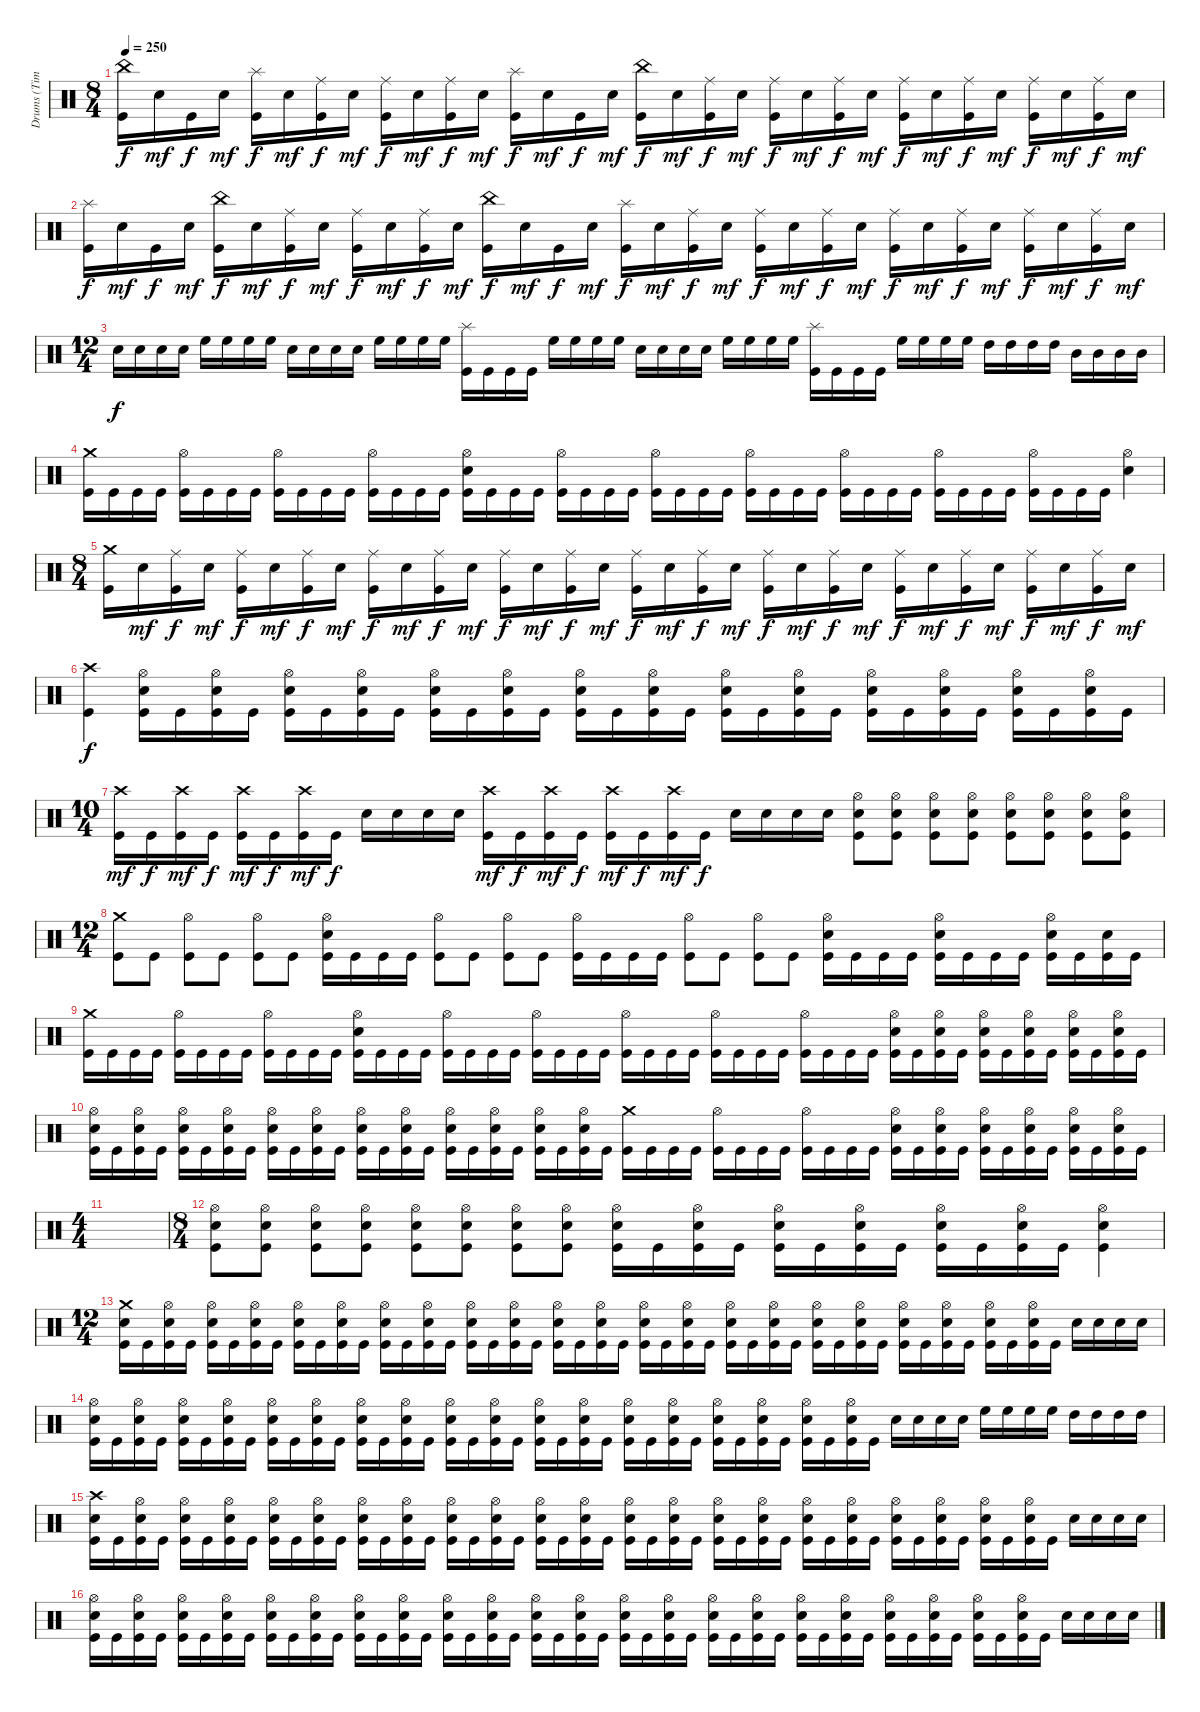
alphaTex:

\track ("Drums (Tim Yeung)" "Drums (Tim") {instrument percussion}
\staff {score}
\articulation defaults
\ts (8 4)
\tempo 250
\clef neutral
\ks c
("China (hit)" "Kick (hit)").16{dy f} "Electric Snare (hit)".16{dy mf} "Kick (hit)".16{dy f} "Electric Snare (hit)".16{dy mf} ("Splash (hit)" "Kick (hit)").16{dy f} "Electric Snare (hit)".16{dy mf} ("Ride (middle)" "Kick (hit)").16{dy f} "Electric Snare (hit)".16{dy mf} ("Ride (middle)" "Kick (hit)").16{dy f} "Electric Snare (hit)".16{dy mf} ("Ride (middle)" "Kick (hit)").16{dy f} "Electric Snare (hit)".16{dy mf} ("Splash (hit)" "Kick (hit)").16{dy f} "Electric Snare (hit)".16{dy mf} "Kick (hit)".16{dy f} "Electric Snare (hit)".16{dy mf} ("China (hit)" "Kick (hit)").16{dy f} "Electric Snare (hit)".16{dy mf} ("Ride (middle)" "Kick (hit)").16{dy f} "Electric Snare (hit)".16{dy mf} ("Ride (middle)" "Kick (hit)").16{dy f} "Electric Snare (hit)".16{dy mf} ("Ride (middle)" "Kick (hit)").16{dy f} "Electric Snare (hit)".16{dy mf} ("Ride (middle)" "Kick (hit)").16{dy f} "Electric Snare (hit)".16{dy mf} ("Ride (middle)" "Kick (hit)").16{dy f} "Electric Snare (hit)".16{dy mf} ("Ride (middle)" "Kick (hit)").16{dy f} "Electric Snare (hit)".16{dy mf} ("Ride (middle)" "Kick (hit)").16{dy f} "Electric Snare (hit)".16{dy mf} |
("Splash (hit)" "Kick (hit)").16{dy f} "Electric Snare (hit)".16{dy mf} "Kick (hit)".16{dy f} "Electric Snare (hit)".16{dy mf} ("China (hit)" "Kick (hit)").16{dy f} "Electric Snare (hit)".16{dy mf} ("Ride (middle)" "Kick (hit)").16{dy f} "Electric Snare (hit)".16{dy mf} ("Ride (middle)" "Kick (hit)").16{dy f} "Electric Snare (hit)".16{dy mf} ("Ride (middle)" "Kick (hit)").16{dy f} "Electric Snare (hit)".16{dy mf} ("China (hit)" "Kick (hit)").16{dy f} "Electric Snare (hit)".16{dy mf} "Kick (hit)".16{dy f} "Electric Snare (hit)".16{dy mf} ("Splash (hit)" "Kick (hit)").16{dy f} "Electric Snare (hit)".16{dy mf} ("Ride (middle)" "Kick (hit)").16{dy f} "Electric Snare (hit)".16{dy mf} ("Ride (middle)" "Kick (hit)").16{dy f} "Electric Snare (hit)".16{dy mf} ("Ride (middle)" "Kick (hit)").16{dy f} "Electric Snare (hit)".16{dy mf} ("Ride (middle)" "Kick (hit)").16{dy f} "Electric Snare (hit)".16{dy mf} ("Ride (middle)" "Kick (hit)").16{dy f} "Electric Snare (hit)".16{dy mf} ("Ride (middle)" "Kick (hit)").16{dy f} "Electric Snare (hit)".16{dy mf} ("Ride (middle)" "Kick (hit)").16{dy f} "Electric Snare (hit)".16{dy mf} |
\ts (12 4)
"Electric Snare (hit)".16{dy f} "Electric Snare (hit)".16 "Electric Snare (hit)".16 "Electric Snare (hit)".16 "High Floor Tom (hit)".16 "High Floor Tom (hit)".16 "High Floor Tom (hit)".16 "High Floor Tom (hit)".16 "Electric Snare (hit)".16 "Electric Snare (hit)".16 "Electric Snare (hit)".16 "Electric Snare (hit)".16 "High Floor Tom (hit)".16 "High Floor Tom (hit)".16 "High Floor Tom (hit)".16 "High Floor Tom (hit)".16 ("Splash (hit)" "Kick (hit)").16 "Kick (hit)".16 "Kick (hit)".16 "Kick (hit)".16 "High Floor Tom (hit)".16 "High Floor Tom (hit)".16 "High Floor Tom (hit)".16 "High Floor Tom (hit)".16 "Electric Snare (hit)".16 "Electric Snare (hit)".16 "Electric Snare (hit)".16 "Electric Snare (hit)".16 "High Floor Tom (hit)".16 "High Floor Tom (hit)".16 "High Floor Tom (hit)".16 "High Floor Tom (hit)".16 ("Splash (hit)" "Kick (hit)").16 "Kick (hit)".16 "Kick (hit)".16 "Kick (hit)".16 "High Floor Tom (hit)".16 "High Floor Tom (hit)".16 "High Floor Tom (hit)".16 "High Floor Tom (hit)".16 "High Tom (hit)".16 "High Tom (hit)".16 "High Tom (hit)".16 "High Tom (hit)".16 "Mid Tom (hit)".16 "Mid Tom (hit)".16 "Mid Tom (hit)".16 "Mid Tom (hit)".16 |
("Crash medium (hit)" "Kick (hit)").16 "Kick (hit)".16 "Kick (hit)".16 "Kick (hit)".16 ("Hi-Hat (open)" "Kick (hit)").16 "Kick (hit)".16 "Kick (hit)".16 "Kick (hit)".16 ("Hi-Hat (open)" "Kick (hit)").16 "Kick (hit)".16 "Kick (hit)".16 "Kick (hit)".16 ("Hi-Hat (open)" "Kick (hit)").16 "Kick (hit)".16 "Kick (hit)".16 "Kick (hit)".16 ("Hi-Hat (open)" "Electric Snare (hit)" "Kick (hit)").16 "Kick (hit)".16 "Kick (hit)".16 "Kick (hit)".16 ("Hi-Hat (open)" "Kick (hit)").16 "Kick (hit)".16 "Kick (hit)".16 "Kick (hit)".16 ("Hi-Hat (open)" "Kick (hit)").16 "Kick (hit)".16 "Kick (hit)".16 "Kick (hit)".16 ("Hi-Hat (open)" "Kick (hit)").16 "Kick (hit)".16 "Kick (hit)".16 "Kick (hit)".16 ("Hi-Hat (open)" "Kick (hit)").16 "Kick (hit)".16 "Kick (hit)".16 "Kick (hit)".16 ("Hi-Hat (open)" "Kick (hit)").16 "Kick (hit)".16 "Kick (hit)".16 "Kick (hit)".16 ("Hi-Hat (open)" "Kick (hit)").16 "Kick (hit)".16 "Kick (hit)".16 "Kick (hit)".16 ("Hi-Hat (open)" "Electric Snare (hit)").4 |
\ts (8 4)
("Crash medium (hit)" "Kick (hit)").16 "Electric Snare (hit)".16{dy mf} ("Ride (middle)" "Kick (hit)").16{dy f} "Electric Snare (hit)".16{dy mf} ("Ride (middle)" "Kick (hit)").16{dy f} "Electric Snare (hit)".16{dy mf} ("Ride (middle)" "Kick (hit)").16{dy f} "Electric Snare (hit)".16{dy mf} ("Ride (middle)" "Kick (hit)").16{dy f} "Electric Snare (hit)".16{dy mf} ("Ride (middle)" "Kick (hit)").16{dy f} "Electric Snare (hit)".16{dy mf} ("Ride (middle)" "Kick (hit)").16{dy f} "Electric Snare (hit)".16{dy mf} ("Ride (middle)" "Kick (hit)").16{dy f} "Electric Snare (hit)".16{dy mf} ("Ride (middle)" "Kick (hit)").16{dy f} "Electric Snare (hit)".16{dy mf} ("Ride (middle)" "Kick (hit)").16{dy f} "Electric Snare (hit)".16{dy mf} ("Ride (middle)" "Kick (hit)").16{dy f} "Electric Snare (hit)".16{dy mf} ("Ride (middle)" "Kick (hit)").16{dy f} "Electric Snare (hit)".16{dy mf} ("Ride (middle)" "Kick (hit)").16{dy f} "Electric Snare (hit)".16{dy mf} ("Ride (middle)" "Kick (hit)").16{dy f} "Electric Snare (hit)".16{dy mf} ("Ride (middle)" "Kick (hit)").16{dy f} "Electric Snare (hit)".16{dy mf} ("Ride (middle)" "Kick (hit)").16{dy f} "Electric Snare (hit)".16{dy mf} |
("Crash high (hit)" "Kick (hit)").4{dy f} ("Hi-Hat (open)" "Electric Snare (hit)" "Kick (hit)").16 "Kick (hit)".16 ("Hi-Hat (open)" "Electric Snare (hit)" "Kick (hit)").16 "Kick (hit)".16 ("Hi-Hat (open)" "Electric Snare (hit)" "Kick (hit)").16 "Kick (hit)".16 ("Hi-Hat (open)" "Electric Snare (hit)" "Kick (hit)").16 "Kick (hit)".16 ("Hi-Hat (open)" "Electric Snare (hit)" "Kick (hit)").16 "Kick (hit)".16 ("Hi-Hat (open)" "Electric Snare (hit)" "Kick (hit)").16 "Kick (hit)".16 ("Hi-Hat (open)" "Electric Snare (hit)" "Kick (hit)").16 "Kick (hit)".16 ("Hi-Hat (open)" "Electric Snare (hit)" "Kick (hit)").16 "Kick (hit)".16 ("Hi-Hat (open)" "Electric Snare (hit)" "Kick (hit)").16 "Kick (hit)".16 ("Hi-Hat (open)" "Electric Snare (hit)" "Kick (hit)").16 "Kick (hit)".16 ("Hi-Hat (open)" "Electric Snare (hit)" "Kick (hit)").16 "Kick (hit)".16 ("Hi-Hat (open)" "Electric Snare (hit)" "Kick (hit)").16 "Kick (hit)".16 ("Hi-Hat (open)" "Electric Snare (hit)" "Kick (hit)").16 "Kick (hit)".16 ("Hi-Hat (open)" "Electric Snare (hit)" "Kick (hit)").16 "Kick (hit)".16 |
\ts (10 4)
("Crash high (hit)" "Kick (hit)").16{dy mf} "Kick (hit)".16{dy f} ("Crash high (hit)" "Kick (hit)").16{dy mf} "Kick (hit)".16{dy f} ("Crash high (hit)" "Kick (hit)").16{dy mf} "Kick (hit)".16{dy f} ("Crash high (hit)" "Kick (hit)").16{dy mf} "Kick (hit)".16{dy f} "Electric Snare (hit)".16 "Electric Snare (hit)".16 "Electric Snare (hit)".16 "Electric Snare (hit)".16 ("Crash high (hit)" "Kick (hit)").16{dy mf} "Kick (hit)".16{dy f} ("Crash high (hit)" "Kick (hit)").16{dy mf} "Kick (hit)".16{dy f} ("Crash high (hit)" "Kick (hit)").16{dy mf} "Kick (hit)".16{dy f} ("Crash high (hit)" "Kick (hit)").16{dy mf} "Kick (hit)".16{dy f} "Electric Snare (hit)".16 "Electric Snare (hit)".16 "Electric Snare (hit)".16 "Electric Snare (hit)".16 ("Hi-Hat (open)" "Electric Snare (hit)" "Kick (hit)").8 ("Hi-Hat (open)" "Electric Snare (hit)" "Kick (hit)").8 ("Hi-Hat (open)" "Electric Snare (hit)" "Kick (hit)").8 ("Hi-Hat (open)" "Electric Snare (hit)" "Kick (hit)").8 ("Hi-Hat (open)" "Electric Snare (hit)" "Kick (hit)").8 ("Hi-Hat (open)" "Electric Snare (hit)" "Kick (hit)").8 ("Hi-Hat (open)" "Electric Snare (hit)" "Kick (hit)").8 ("Hi-Hat (open)" "Electric Snare (hit)" "Kick (hit)").8 |
\ts (12 4)
("Crash medium (hit)" "Kick (hit)").8 "Kick (hit)".8 ("Hi-Hat (open)" "Kick (hit)").8 "Kick (hit)".8 ("Hi-Hat (open)" "Kick (hit)").8 "Kick (hit)".8 ("Hi-Hat (open)" "Electric Snare (hit)" "Kick (hit)").16 "Kick (hit)".16 "Kick (hit)".16 "Kick (hit)".16 ("Hi-Hat (open)" "Kick (hit)").8 "Kick (hit)".8 ("Hi-Hat (open)" "Kick (hit)").8 "Kick (hit)".8 ("Hi-Hat (open)" "Kick (hit)").16 "Kick (hit)".16 "Kick (hit)".16 "Kick (hit)".16 ("Hi-Hat (open)" "Kick (hit)").8 "Kick (hit)".8 ("Hi-Hat (open)" "Kick (hit)").8 "Kick (hit)".8 ("Hi-Hat (open)" "Electric Snare (hit)" "Kick (hit)").16 "Kick (hit)".16 "Kick (hit)".16 "Kick (hit)".16 ("Hi-Hat (open)" "Electric Snare (hit)" "Kick (hit)").16 "Kick (hit)".16 "Kick (hit)".16 "Kick (hit)".16 ("Hi-Hat (open)" "Electric Snare (hit)" "Kick (hit)").16 "Kick (hit)".16 ("Electric Snare (hit)" "Kick (hit)").16 "Kick (hit)".16 |
("Crash medium (hit)" "Kick (hit)").16 "Kick (hit)".16 "Kick (hit)".16 "Kick (hit)".16 ("Hi-Hat (open)" "Kick (hit)").16 "Kick (hit)".16 "Kick (hit)".16 "Kick (hit)".16 ("Hi-Hat (open)" "Kick (hit)").16 "Kick (hit)".16 "Kick (hit)".16 "Kick (hit)".16 ("Hi-Hat (open)" "Electric Snare (hit)" "Kick (hit)").16 "Kick (hit)".16 "Kick (hit)".16 "Kick (hit)".16 ("Hi-Hat (open)" "Kick (hit)").16 "Kick (hit)".16 "Kick (hit)".16 "Kick (hit)".16 ("Hi-Hat (open)" "Kick (hit)").16 "Kick (hit)".16 "Kick (hit)".16 "Kick (hit)".16 ("Hi-Hat (open)" "Kick (hit)").16 "Kick (hit)".16 "Kick (hit)".16 "Kick (hit)".16 ("Hi-Hat (open)" "Kick (hit)").16 "Kick (hit)".16 "Kick (hit)".16 "Kick (hit)".16 ("Hi-Hat (open)" "Kick (hit)").16 "Kick (hit)".16 "Kick (hit)".16 "Kick (hit)".16 ("Hi-Hat (open)" "Electric Snare (hit)" "Kick (hit)").16 "Kick (hit)".16 ("Hi-Hat (open)" "Electric Snare (hit)" "Kick (hit)").16 "Kick (hit)".16 ("Hi-Hat (open)" "Electric Snare (hit)" "Kick (hit)").16 "Kick (hit)".16 ("Hi-Hat (open)" "Electric Snare (hit)" "Kick (hit)").16 "Kick (hit)".16 ("Hi-Hat (open)" "Electric Snare (hit)" "Kick (hit)").16 "Kick (hit)".16 ("Hi-Hat (open)" "Electric Snare (hit)" "Kick (hit)").16 "Kick (hit)".16 |
("Hi-Hat (open)" "Electric Snare (hit)" "Kick (hit)").16 "Kick (hit)".16 ("Hi-Hat (open)" "Electric Snare (hit)" "Kick (hit)").16 "Kick (hit)".16 ("Hi-Hat (open)" "Electric Snare (hit)" "Kick (hit)").16 "Kick (hit)".16 ("Hi-Hat (open)" "Electric Snare (hit)" "Kick (hit)").16 "Kick (hit)".16 ("Hi-Hat (open)" "Electric Snare (hit)" "Kick (hit)").16 "Kick (hit)".16 ("Hi-Hat (open)" "Electric Snare (hit)" "Kick (hit)").16 "Kick (hit)".16 ("Hi-Hat (open)" "Electric Snare (hit)" "Kick (hit)").16 "Kick (hit)".16 ("Hi-Hat (open)" "Electric Snare (hit)" "Kick (hit)").16 "Kick (hit)".16 ("Hi-Hat (open)" "Electric Snare (hit)" "Kick (hit)").16 "Kick (hit)".16 ("Hi-Hat (open)" "Electric Snare (hit)" "Kick (hit)").16 "Kick (hit)".16 ("Hi-Hat (open)" "Electric Snare (hit)" "Kick (hit)").16 "Kick (hit)".16 ("Hi-Hat (open)" "Electric Snare (hit)" "Kick (hit)").16 "Kick (hit)".16 ("Crash medium (hit)" "Kick (hit)").16 "Kick (hit)".16 "Kick (hit)".16 "Kick (hit)".16 ("Hi-Hat (open)" "Kick (hit)").16 "Kick (hit)".16 "Kick (hit)".16 "Kick (hit)".16 ("Hi-Hat (open)" "Kick (hit)").16 "Kick (hit)".16 "Kick (hit)".16 "Kick (hit)".16 ("Hi-Hat (open)" "Electric Snare (hit)" "Kick (hit)").16 "Kick (hit)".16 ("Hi-Hat (open)" "Electric Snare (hit)" "Kick (hit)").16 "Kick (hit)".16 ("Hi-Hat (open)" "Electric Snare (hit)" "Kick (hit)").16 "Kick (hit)".16 ("Hi-Hat (open)" "Electric Snare (hit)" "Kick (hit)").16 "Kick (hit)".16 ("Hi-Hat (open)" "Electric Snare (hit)" "Kick (hit)").16 "Kick (hit)".16 ("Hi-Hat (open)" "Electric Snare (hit)" "Kick (hit)").16 "Kick (hit)".16 |
\ts (4 4)
|
\ts (8 4)
("Hi-Hat (open)" "Electric Snare (hit)" "Kick (hit)").8 ("Hi-Hat (open)" "Electric Snare (hit)" "Kick (hit)").8 ("Hi-Hat (open)" "Electric Snare (hit)" "Kick (hit)").8 ("Hi-Hat (open)" "Electric Snare (hit)" "Kick (hit)").8 ("Hi-Hat (open)" "Electric Snare (hit)" "Kick (hit)").8 ("Hi-Hat (open)" "Electric Snare (hit)" "Kick (hit)").8 ("Hi-Hat (open)" "Electric Snare (hit)" "Kick (hit)").8 ("Hi-Hat (open)" "Electric Snare (hit)" "Kick (hit)").8 ("Hi-Hat (open)" "Electric Snare (hit)" "Kick (hit)").16 "Kick (hit)".16 ("Hi-Hat (open)" "Electric Snare (hit)" "Kick (hit)").16 "Kick (hit)".16 ("Hi-Hat (open)" "Electric Snare (hit)" "Kick (hit)").16 "Kick (hit)".16 ("Hi-Hat (open)" "Electric Snare (hit)" "Kick (hit)").16 "Kick (hit)".16 ("Hi-Hat (open)" "Electric Snare (hit)" "Kick (hit)").16 "Kick (hit)".16 ("Hi-Hat (open)" "Electric Snare (hit)" "Kick (hit)").16 "Kick (hit)".16 ("Hi-Hat (open)" "Electric Snare (hit)" "Kick (hit)").4 |
\ts (12 4)
("Crash medium (hit)" "Electric Snare (hit)" "Kick (hit)").16 "Kick (hit)".16 ("Hi-Hat (open)" "Electric Snare (hit)" "Kick (hit)").16 "Kick (hit)".16 ("Hi-Hat (open)" "Electric Snare (hit)" "Kick (hit)").16 "Kick (hit)".16 ("Hi-Hat (open)" "Electric Snare (hit)" "Kick (hit)").16 "Kick (hit)".16 ("Hi-Hat (open)" "Electric Snare (hit)" "Kick (hit)").16 "Kick (hit)".16 ("Hi-Hat (open)" "Electric Snare (hit)" "Kick (hit)").16 "Kick (hit)".16 ("Hi-Hat (open)" "Electric Snare (hit)" "Kick (hit)").16 "Kick (hit)".16 ("Hi-Hat (open)" "Electric Snare (hit)" "Kick (hit)").16 "Kick (hit)".16 ("Hi-Hat (open)" "Electric Snare (hit)" "Kick (hit)").16 "Kick (hit)".16 ("Hi-Hat (open)" "Electric Snare (hit)" "Kick (hit)").16 "Kick (hit)".16 ("Hi-Hat (open)" "Electric Snare (hit)" "Kick (hit)").16 "Kick (hit)".16 ("Hi-Hat (open)" "Electric Snare (hit)" "Kick (hit)").16 "Kick (hit)".16 ("Hi-Hat (open)" "Electric Snare (hit)" "Kick (hit)").16 "Kick (hit)".16 ("Hi-Hat (open)" "Electric Snare (hit)" "Kick (hit)").16 "Kick (hit)".16 ("Hi-Hat (open)" "Electric Snare (hit)" "Kick (hit)").16 "Kick (hit)".16 ("Hi-Hat (open)" "Electric Snare (hit)" "Kick (hit)").16 "Kick (hit)".16 ("Hi-Hat (open)" "Electric Snare (hit)" "Kick (hit)").16 "Kick (hit)".16 ("Hi-Hat (open)" "Electric Snare (hit)" "Kick (hit)").16 "Kick (hit)".16 ("Hi-Hat (open)" "Electric Snare (hit)" "Kick (hit)").16 "Kick (hit)".16 ("Hi-Hat (open)" "Electric Snare (hit)" "Kick (hit)").16 "Kick (hit)".16 ("Hi-Hat (open)" "Electric Snare (hit)" "Kick (hit)").16 "Kick (hit)".16 ("Hi-Hat (open)" "Electric Snare (hit)" "Kick (hit)").16 "Kick (hit)".16 "Electric Snare (hit)".16 "Electric Snare (hit)".16 "Electric Snare (hit)".16 "Electric Snare (hit)".16 |
("Hi-Hat (open)" "Electric Snare (hit)" "Kick (hit)").16 "Kick (hit)".16 ("Hi-Hat (open)" "Electric Snare (hit)" "Kick (hit)").16 "Kick (hit)".16 ("Hi-Hat (open)" "Electric Snare (hit)" "Kick (hit)").16 "Kick (hit)".16 ("Hi-Hat (open)" "Electric Snare (hit)" "Kick (hit)").16 "Kick (hit)".16 ("Hi-Hat (open)" "Electric Snare (hit)" "Kick (hit)").16 "Kick (hit)".16 ("Hi-Hat (open)" "Electric Snare (hit)" "Kick (hit)").16 "Kick (hit)".16 ("Hi-Hat (open)" "Electric Snare (hit)" "Kick (hit)").16 "Kick (hit)".16 ("Hi-Hat (open)" "Electric Snare (hit)" "Kick (hit)").16 "Kick (hit)".16 ("Hi-Hat (open)" "Electric Snare (hit)" "Kick (hit)").16 "Kick (hit)".16 ("Hi-Hat (open)" "Electric Snare (hit)" "Kick (hit)").16 "Kick (hit)".16 ("Hi-Hat (open)" "Electric Snare (hit)" "Kick (hit)").16 "Kick (hit)".16 ("Hi-Hat (open)" "Electric Snare (hit)" "Kick (hit)").16 "Kick (hit)".16 ("Hi-Hat (open)" "Electric Snare (hit)" "Kick (hit)").16 "Kick (hit)".16 ("Hi-Hat (open)" "Electric Snare (hit)" "Kick (hit)").16 "Kick (hit)".16 ("Hi-Hat (open)" "Electric Snare (hit)" "Kick (hit)").16 "Kick (hit)".16 ("Hi-Hat (open)" "Electric Snare (hit)" "Kick (hit)").16 "Kick (hit)".16 ("Hi-Hat (open)" "Electric Snare (hit)" "Kick (hit)").16 "Kick (hit)".16 ("Hi-Hat (open)" "Electric Snare (hit)" "Kick (hit)").16 "Kick (hit)".16 "Electric Snare (hit)".16 "Electric Snare (hit)".16 "Electric Snare (hit)".16 "Electric Snare (hit)".16 "High Floor Tom (hit)".16 "High Floor Tom (hit)".16 "High Floor Tom (hit)".16 "High Floor Tom (hit)".16 "High Tom (hit)".16 "High Tom (hit)".16 "High Tom (hit)".16 "High Tom (hit)".16 |
("Crash high (hit)" "Electric Snare (hit)" "Kick (hit)").16 "Kick (hit)".16 ("Hi-Hat (open)" "Electric Snare (hit)" "Kick (hit)").16 "Kick (hit)".16 ("Hi-Hat (open)" "Electric Snare (hit)" "Kick (hit)").16 "Kick (hit)".16 ("Hi-Hat (open)" "Electric Snare (hit)" "Kick (hit)").16 "Kick (hit)".16 ("Hi-Hat (open)" "Electric Snare (hit)" "Kick (hit)").16 "Kick (hit)".16 ("Hi-Hat (open)" "Electric Snare (hit)" "Kick (hit)").16 "Kick (hit)".16 ("Hi-Hat (open)" "Electric Snare (hit)" "Kick (hit)").16 "Kick (hit)".16 ("Hi-Hat (open)" "Electric Snare (hit)" "Kick (hit)").16 "Kick (hit)".16 ("Hi-Hat (open)" "Electric Snare (hit)" "Kick (hit)").16 "Kick (hit)".16 ("Hi-Hat (open)" "Electric Snare (hit)" "Kick (hit)").16 "Kick (hit)".16 ("Hi-Hat (open)" "Electric Snare (hit)" "Kick (hit)").16 "Kick (hit)".16 ("Hi-Hat (open)" "Electric Snare (hit)" "Kick (hit)").16 "Kick (hit)".16 ("Hi-Hat (open)" "Electric Snare (hit)" "Kick (hit)").16 "Kick (hit)".16 ("Hi-Hat (open)" "Electric Snare (hit)" "Kick (hit)").16 "Kick (hit)".16 ("Hi-Hat (open)" "Electric Snare (hit)" "Kick (hit)").16 "Kick (hit)".16 ("Hi-Hat (open)" "Electric Snare (hit)" "Kick (hit)").16 "Kick (hit)".16 ("Hi-Hat (open)" "Electric Snare (hit)" "Kick (hit)").16 "Kick (hit)".16 ("Hi-Hat (open)" "Electric Snare (hit)" "Kick (hit)").16 "Kick (hit)".16 ("Hi-Hat (open)" "Electric Snare (hit)" "Kick (hit)").16 "Kick (hit)".16 ("Hi-Hat (open)" "Electric Snare (hit)" "Kick (hit)").16 "Kick (hit)".16 ("Hi-Hat (open)" "Electric Snare (hit)" "Kick (hit)").16 "Kick (hit)".16 ("Hi-Hat (open)" "Electric Snare (hit)" "Kick (hit)").16 "Kick (hit)".16 "Electric Snare (hit)".16 "Electric Snare (hit)".16 "Electric Snare (hit)".16 "Electric Snare (hit)".16 |
("Hi-Hat (open)" "Electric Snare (hit)" "Kick (hit)").16 "Kick (hit)".16 ("Hi-Hat (open)" "Electric Snare (hit)" "Kick (hit)").16 "Kick (hit)".16 ("Hi-Hat (open)" "Electric Snare (hit)" "Kick (hit)").16 "Kick (hit)".16 ("Hi-Hat (open)" "Electric Snare (hit)" "Kick (hit)").16 "Kick (hit)".16 ("Hi-Hat (open)" "Electric Snare (hit)" "Kick (hit)").16 "Kick (hit)".16 ("Hi-Hat (open)" "Electric Snare (hit)" "Kick (hit)").16 "Kick (hit)".16 ("Hi-Hat (open)" "Electric Snare (hit)" "Kick (hit)").16 "Kick (hit)".16 ("Hi-Hat (open)" "Electric Snare (hit)" "Kick (hit)").16 "Kick (hit)".16 ("Hi-Hat (open)" "Electric Snare (hit)" "Kick (hit)").16 "Kick (hit)".16 ("Hi-Hat (open)" "Electric Snare (hit)" "Kick (hit)").16 "Kick (hit)".16 ("Hi-Hat (open)" "Electric Snare (hit)" "Kick (hit)").16 "Kick (hit)".16 ("Hi-Hat (open)" "Electric Snare (hit)" "Kick (hit)").16 "Kick (hit)".16 ("Hi-Hat (open)" "Electric Snare (hit)" "Kick (hit)").16 "Kick (hit)".16 ("Hi-Hat (open)" "Electric Snare (hit)" "Kick (hit)").16 "Kick (hit)".16 ("Hi-Hat (open)" "Electric Snare (hit)" "Kick (hit)").16 "Kick (hit)".16 ("Hi-Hat (open)" "Electric Snare (hit)" "Kick (hit)").16 "Kick (hit)".16 ("Hi-Hat (open)" "Electric Snare (hit)" "Kick (hit)").16 "Kick (hit)".16 ("Hi-Hat (open)" "Electric Snare (hit)" "Kick (hit)").16 "Kick (hit)".16 ("Hi-Hat (open)" "Electric Snare (hit)" "Kick (hit)").16 "Kick (hit)".16 ("Hi-Hat (open)" "Electric Snare (hit)" "Kick (hit)").16 "Kick (hit)".16 ("Hi-Hat (open)" "Electric Snare (hit)" "Kick (hit)").16 "Kick (hit)".16 ("Hi-Hat (open)" "Electric Snare (hit)" "Kick (hit)").16 "Kick (hit)".16 "Electric Snare (hit)".16 "Electric Snare (hit)".16 "Electric Snare (hit)".16 "Electric Snare (hit)".16
